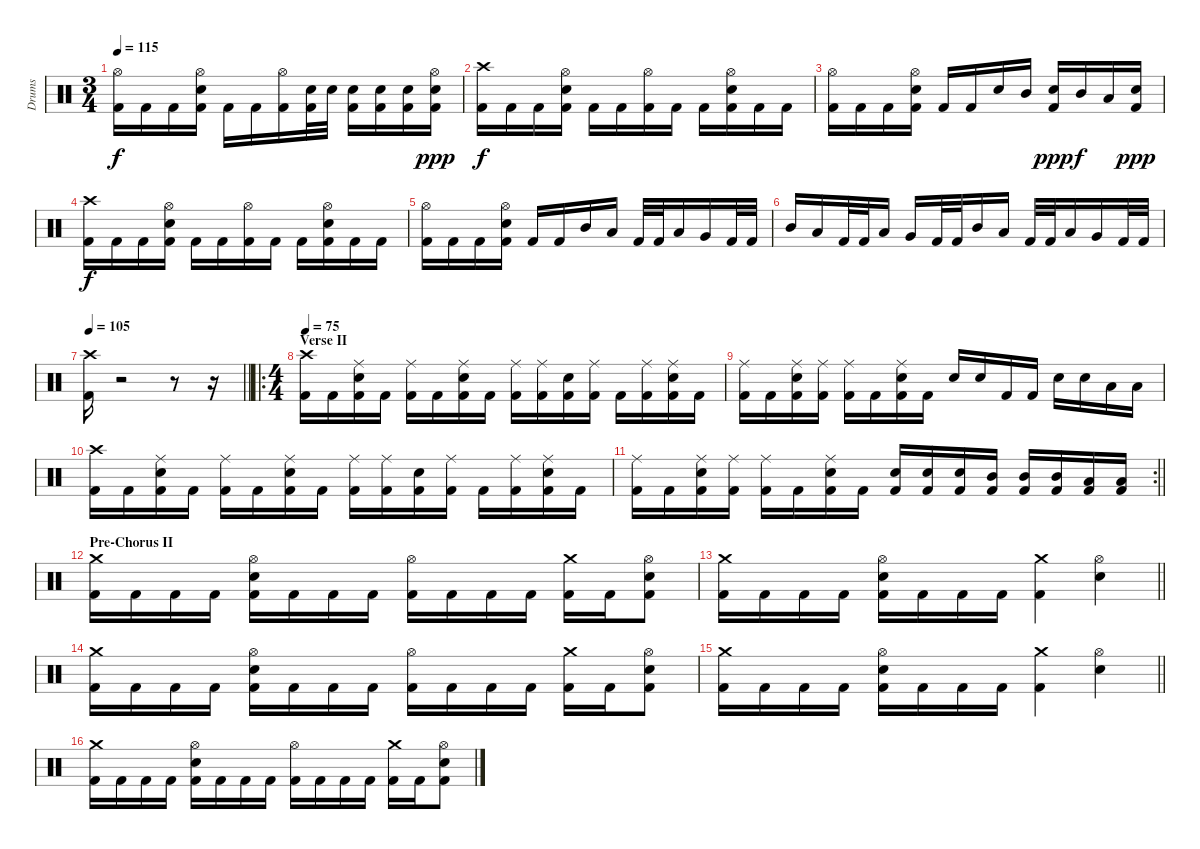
\track ("Drums" "Drums") {instrument percussion}
\staff {score}
\articulation defaults
\ts (3 4)
\tempo 115
\clef neutral
\ks c
("Hi-Hat (open)" "Kick (hit) 2").16{dy f} "Kick (hit) 2".16 "Kick (hit) 2".16 ("Hi-Hat (open)" "Snare (hit) 2" "Kick (hit) 2").16 "Kick (hit) 2".16 "Kick (hit) 2".16 ("Hi-Hat (open)" "Kick (hit) 2").16 ("Snare (hit) 2" "Kick (hit) 2").32 "Snare (hit) 2".32 ("Snare (hit) 2" "Kick (hit) 2").16 ("Snare (hit) 2" "Kick (hit) 2").16 ("Snare (hit) 2" "Kick (hit) 2").16 ("Hi-Hat (open)" "Snare (hit) 2" "Kick (hit) 2").16{dy ppp} |
("Crash high (hit)" "Kick (hit) 2").16{dy f} "Kick (hit) 2".16 "Kick (hit) 2".16 ("Hi-Hat (open)" "Snare (hit) 2" "Kick (hit) 2").16 "Kick (hit) 2".16 "Kick (hit) 2".16 ("Hi-Hat (open)" "Kick (hit) 2").16 "Kick (hit) 2".16 "Kick (hit) 2".16 ("Hi-Hat (open)" "Snare (hit) 2" "Kick (hit) 2").16 "Kick (hit) 2".16 "Kick (hit) 2".16 |
("Hi-Hat (open)" "Kick (hit) 2").16 "Kick (hit) 2".16 "Kick (hit) 2".16 ("Hi-Hat (open)" "Snare (hit) 2" "Kick (hit) 2").16 "Kick (hit) 2".16 "Kick (hit) 2".16 "Snare (hit) 2".16 "Mid Tom (hit)".16 ("Snare (hit) 2" "Kick (hit) 2").16{dy ppp} "Mid Tom (hit)".16{dy f} "Low Tom (hit)".16 ("Snare (hit) 2" "Kick (hit) 2").16{dy ppp} |
("Crash high (hit)" "Kick (hit) 2").16{dy f} "Kick (hit) 2".16 "Kick (hit) 2".16 ("Hi-Hat (open)" "Snare (hit) 2" "Kick (hit) 2").16 "Kick (hit) 2".16 "Kick (hit) 2".16 ("Hi-Hat (open)" "Kick (hit) 2").16 "Kick (hit) 2".16 "Kick (hit) 2".16 ("Hi-Hat (open)" "Snare (hit) 2" "Kick (hit) 2").16 "Kick (hit) 2".16 "Kick (hit) 2".16 |
("Hi-Hat (open)" "Kick (hit) 2").16 "Kick (hit) 2".16 "Kick (hit) 2".16 ("Hi-Hat (open)" "Snare (hit) 2" "Kick (hit) 2").16 "Kick (hit) 2".16 "Kick (hit) 2".16 "Mid Tom (hit)".16 "Low Tom (hit)".16 "Kick (hit) 2".32 "Kick (hit) 2".32 "Low Tom (hit)".16 "Very Low Tom (hit)".16 "Kick (hit) 2".32 "Kick (hit) 2".32 |
"Mid Tom (hit)".16 "Low Tom (hit)".16 "Kick (hit) 2".32 "Kick (hit) 2".32 "Low Tom (hit)".16 "Very Low Tom (hit)".16 "Kick (hit) 2".32 "Kick (hit) 2".32 "Mid Tom (hit)".16 "Low Tom (hit)".16 "Kick (hit) 2".32 "Kick (hit) 2".32 "Low Tom (hit)".16 "Very Low Tom (hit)".16 "Kick (hit) 2".32 "Kick (hit) 2".32 |
\tempo 105
\barLineRight lightlight
("Crash high (hit)" "Kick (hit) 2").16 r.2 r.8 r.16 |
\ro
\ts (4 4)
\section ("" "Verse II")
\tempo 75
("Crash high (hit)" "Kick (hit) 2").16 "Kick (hit) 2".16 ("Ride (middle)" "Snare (hit) 2" "Kick (hit) 2").16 "Kick (hit) 2".16 ("Ride (middle)" "Kick (hit) 2").16 "Kick (hit) 2".16 ("Ride (middle)" "Snare (hit) 2" "Kick (hit) 2").16 "Kick (hit) 2".16 ("Ride (middle)" "Kick (hit) 2").16 ("Ride (middle)" "Kick (hit) 2").16 ("Snare (hit) 2" "Kick (hit) 2").16 ("Ride (middle)" "Kick (hit) 2").16 "Kick (hit) 2".16 ("Ride (middle)" "Kick (hit) 2").16 ("Ride (middle)" "Snare (hit) 2" "Kick (hit) 2").16 "Kick (hit) 2".16 |
("Ride (middle)" "Kick (hit) 2").16 "Kick (hit) 2".16 ("Ride (middle)" "Snare (hit) 2" "Kick (hit) 2").16 ("Ride (middle)" "Kick (hit) 2").16 ("Ride (middle)" "Kick (hit) 2").16 "Kick (hit) 2".16 ("Ride (middle)" "Snare (hit) 2" "Kick (hit) 2").16 "Kick (hit) 2".16 "Snare (hit) 2".16 "Snare (hit) 2".16 "Kick (hit) 2".16 "Kick (hit) 2".16 "Snare (hit) 2".16 "Snare (hit) 2".16 "Low Tom (hit)".16 "Low Tom (hit)".16 |
("Crash high (hit)" "Kick (hit) 2").16 "Kick (hit) 2".16 ("Ride (middle)" "Snare (hit) 2" "Kick (hit) 2").16 "Kick (hit) 2".16 ("Ride (middle)" "Kick (hit) 2").16 "Kick (hit) 2".16 ("Ride (middle)" "Snare (hit) 2" "Kick (hit) 2").16 "Kick (hit) 2".16 ("Ride (middle)" "Kick (hit) 2").16 ("Ride (middle)" "Kick (hit) 2").16 ("Snare (hit) 2" "Kick (hit) 2").16 ("Ride (middle)" "Kick (hit) 2").16 "Kick (hit) 2".16 ("Ride (middle)" "Kick (hit) 2").16 ("Ride (middle)" "Snare (hit) 2" "Kick (hit) 2").16 "Kick (hit) 2".16 |
\rc 2
\barLineRight lightlight
("Ride (middle)" "Kick (hit) 2").16 "Kick (hit) 2".16 ("Ride (middle)" "Snare (hit) 2" "Kick (hit) 2").16 ("Ride (middle)" "Kick (hit) 2").16 ("Ride (middle)" "Kick (hit) 2").16 "Kick (hit) 2".16 ("Ride (middle)" "Snare (hit) 2" "Kick (hit) 2").16 "Kick (hit) 2".16 ("Snare (hit) 2" "Kick (hit) 2").16 ("Snare (hit) 2" "Kick (hit) 2").16 ("Snare (hit) 2" "Kick (hit) 2").16 ("Mid Tom (hit)" "Kick (hit) 2").16 ("Mid Tom (hit)" "Kick (hit) 2").16 ("Mid Tom (hit)" "Kick (hit) 2").16 ("Low Tom (hit)" "Kick (hit) 2").16 ("Low Tom (hit)" "Kick (hit) 2").16 |
\section ("" "Pre-Chorus II")
("Crash medium (hit)" "Kick (hit) 2").16 "Kick (hit) 2".16 "Kick (hit) 2".16 "Kick (hit) 2".16 ("Hi-Hat (open)" "Snare (hit) 2" "Kick (hit) 2").16 "Kick (hit) 2".16 "Kick (hit) 2".16 "Kick (hit) 2".16 ("Hi-Hat (open)" "Kick (hit) 2").16 "Kick (hit) 2".16 "Kick (hit) 2".16 "Kick (hit) 2".16 ("Crash medium (hit)" "Kick (hit) 2").16 "Kick (hit) 2".16 ("Hi-Hat (open)" "Snare (hit) 2" "Kick (hit) 2").8 |
\barLineRight lightlight
("Crash medium (hit)" "Kick (hit) 2").16 "Kick (hit) 2".16 "Kick (hit) 2".16 "Kick (hit) 2".16 ("Hi-Hat (open)" "Snare (hit) 2" "Kick (hit) 2").16 "Kick (hit) 2".16 "Kick (hit) 2".16 "Kick (hit) 2".16 ("Crash medium (hit)" "Kick (hit) 2").4 ("Hi-Hat (open)" "Snare (hit) 2").4 |
("Crash medium (hit)" "Kick (hit) 2").16 "Kick (hit) 2".16 "Kick (hit) 2".16 "Kick (hit) 2".16 ("Hi-Hat (open)" "Snare (hit) 2" "Kick (hit) 2").16 "Kick (hit) 2".16 "Kick (hit) 2".16 "Kick (hit) 2".16 ("Hi-Hat (open)" "Kick (hit) 2").16 "Kick (hit) 2".16 "Kick (hit) 2".16 "Kick (hit) 2".16 ("Crash medium (hit)" "Kick (hit) 2").16 "Kick (hit) 2".16 ("Hi-Hat (open)" "Snare (hit) 2" "Kick (hit) 2").8 |
\barLineRight lightlight
("Crash medium (hit)" "Kick (hit) 2").16 "Kick (hit) 2".16 "Kick (hit) 2".16 "Kick (hit) 2".16 ("Hi-Hat (open)" "Snare (hit) 2" "Kick (hit) 2").16 "Kick (hit) 2".16 "Kick (hit) 2".16 "Kick (hit) 2".16 ("Crash medium (hit)" "Kick (hit) 2").4 ("Hi-Hat (open)" "Snare (hit) 2").4 |
("Crash medium (hit)" "Kick (hit) 2").16 "Kick (hit) 2".16 "Kick (hit) 2".16 "Kick (hit) 2".16 ("Hi-Hat (open)" "Snare (hit) 2" "Kick (hit) 2").16 "Kick (hit) 2".16 "Kick (hit) 2".16 "Kick (hit) 2".16 ("Hi-Hat (open)" "Kick (hit) 2").16 "Kick (hit) 2".16 "Kick (hit) 2".16 "Kick (hit) 2".16 ("Crash medium (hit)" "Kick (hit) 2").16 "Kick (hit) 2".16 ("Hi-Hat (open)" "Snare (hit) 2" "Kick (hit) 2").8
